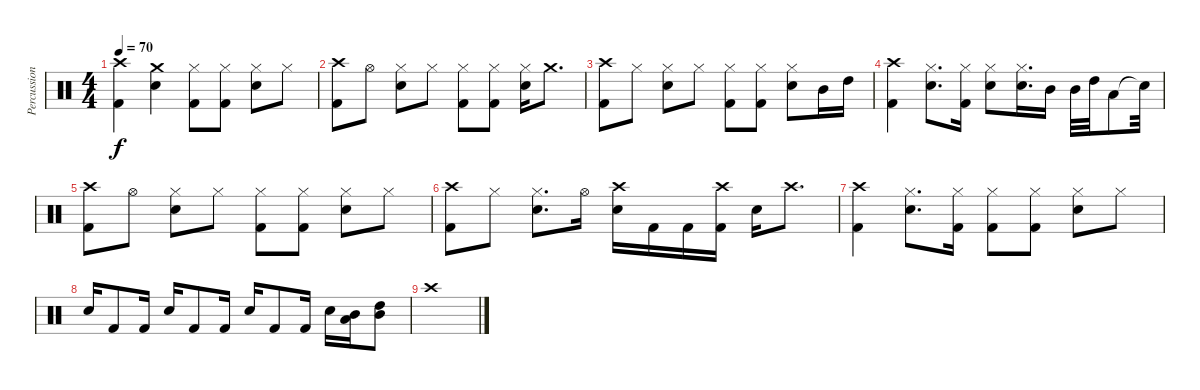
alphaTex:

\track ("Percussioni" "Percussion") {instrument percussion}
\staff {score}
\articulation defaults
\ts (4 4)
\tempo 70
\clef neutral
\ks c
("Crash high (hit)" "Kick (hit) 2").4{dy f} ("Crash medium (hit)" "Snare (hit) 2").4 ("Hi-Hat (closed)" "Kick (hit) 2").8 ("Hi-Hat (closed)" "Kick (hit) 2").8 ("Hi-Hat (closed)" "Snare (hit) 2").8 "Hi-Hat (closed)".8 |
("Crash high (hit)" "Kick (hit) 2").8 "Hi-Hat (open)".8 ("Hi-Hat (closed)" "Snare (hit) 2").8 "Hi-Hat (closed)".8 ("Hi-Hat (closed)" "Kick (hit) 2").8 ("Hi-Hat (closed)" "Kick (hit) 2").8 ("Hi-Hat (closed)" "Snare (hit) 2").16 "Crash medium (hit)".8{d} |
("Crash high (hit)" "Kick (hit) 2").8 "Hi-Hat (closed)".8 ("Hi-Hat (closed)" "Snare (hit) 2").8 "Hi-Hat (closed)".8 ("Hi-Hat (closed)" "Kick (hit) 2").8 ("Hi-Hat (closed)" "Kick (hit) 2").8 ("Hi-Hat (closed)" "Snare (hit) 2").8 "Mid Tom (hit)".16 "High Tom (hit)".16 |
("Crash high (hit)" "Kick (hit) 2").4 ("Hi-Hat (closed)" "Snare (hit) 2").8{d} ("Hi-Hat (closed)" "Kick (hit) 2").16 ("Hi-Hat (closed)" "Snare (hit) 2").8 ("Hi-Hat (closed)" "Snare (hit) 2").16{d} "Mid Tom (hit)".16 "Mid Tom (hit)".32 "High Tom (hit)".32 "Low Tom (hit)".8 "Snare (hit)"{t}.32 |
("Crash high (hit)" "Kick (hit) 2").8 "Hi-Hat (open)".8 ("Hi-Hat (closed)" "Snare (hit) 2").8 "Hi-Hat (closed)".8 ("Hi-Hat (closed)" "Kick (hit) 2").8 ("Hi-Hat (closed)" "Kick (hit) 2").8 ("Hi-Hat (closed)" "Snare (hit) 2").8 "Hi-Hat (closed)".8 |
("Crash high (hit)" "Kick (hit) 2").8 "Hi-Hat (closed)".8 ("Hi-Hat (closed)" "Snare (hit) 2").8{d} "Hi-Hat (open)".16 ("Crash high (hit)" "Snare (hit) 2").16 "Kick (hit) 2".16 "Kick (hit) 2".16 ("Crash high (hit)" "Kick (hit) 2").16 "Snare (hit) 2".16 "Crash high (hit)".8{d} |
("Crash high (hit)" "Kick (hit) 2").4 ("Hi-Hat (closed)" "Snare (hit) 2").8{d} ("Hi-Hat (closed)" "Kick (hit) 2").16 ("Hi-Hat (closed)" "Kick (hit) 2").8 ("Hi-Hat (closed)" "Kick (hit) 2").8 ("Hi-Hat (closed)" "Snare (hit) 2").8 "Hi-Hat (closed)".8 |
"Snare (hit) 2".16 "Kick (hit) 2".8 "Kick (hit) 2".16 "Snare (hit) 2".16 "Kick (hit) 2".8 "Kick (hit) 2".16 "Snare (hit) 2".16 "Kick (hit) 2".8 "Kick (hit) 2".16 "Snare (hit) 2".16 ("Low Tom (hit)" "Mid Tom (hit)").16 ("High Tom (hit)" "Mid Tom (hit)").8 |
"Crash high (hit)".1
